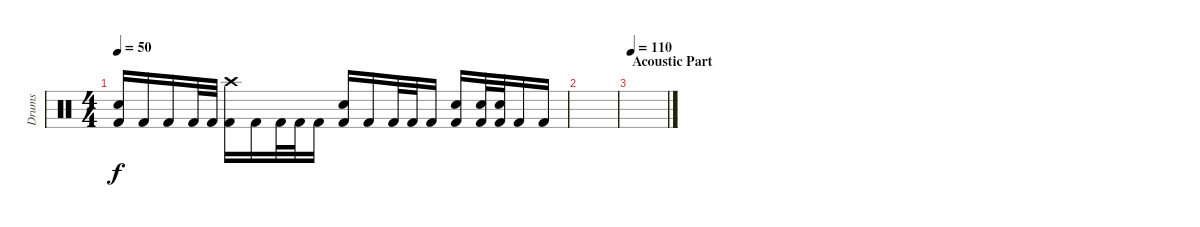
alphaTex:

\track ("Drums" "Drums") {instrument percussion}
\staff {score}
\articulation defaults
\ts (4 4)
\tempo 50
\clef neutral
\ks c
("Snare (hit) 2" "Kick (hit) 2").16{dy f} "Kick (hit) 2".16 "Kick (hit) 2".16 "Kick (hit) 2".32 "Kick (hit) 2".32 ("Crash high (hit)" "Kick (hit) 2").16 "Kick (hit) 2".16 "Kick (hit) 2".32 "Kick (hit) 2".32 "Kick (hit) 2".16 ("Snare (hit) 2" "Kick (hit) 2").16 "Kick (hit) 2".16 "Kick (hit) 2".32 "Kick (hit) 2".32 "Kick (hit) 2".16 ("Snare (hit) 2" "Kick (hit) 2").16 ("Snare (hit) 2" "Kick (hit) 2").32 ("Snare (hit) 2" "Kick (hit) 2").32 "Kick (hit) 2".16 "Kick (hit) 2".16 |
|
\section ("" "Acoustic Part")
\tempo 110
